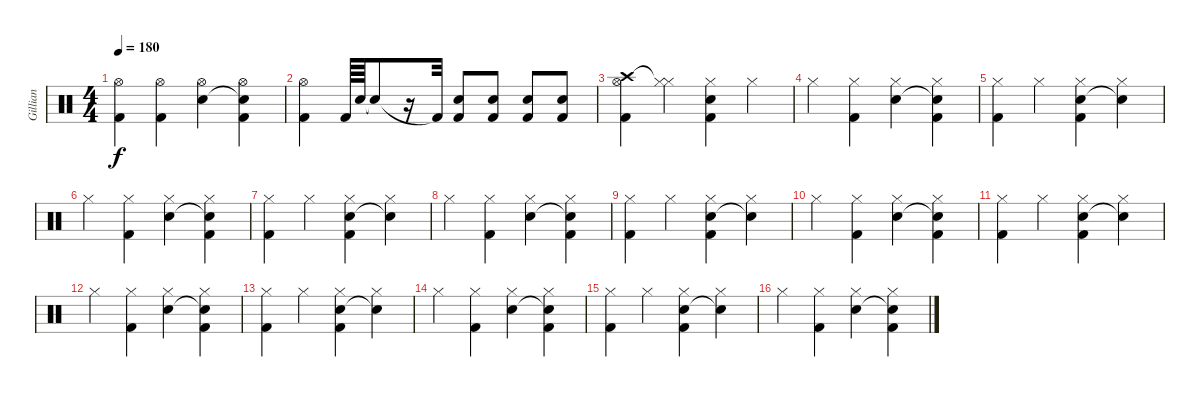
\track ("Gillian" "Gillian") {instrument percussion}
\staff {score}
\articulation defaults
\ts (4 4)
\tempo 180
\clef neutral
\ks c
("Hi-Hat (open)" "Kick (hit) 2").4{dy f} ("Hi-Hat (open)" "Kick (hit) 2").4 ("Hi-Hat (open)" "Electric Snare (hit)").4 ("Hi-Hat (open)" "Snare (hit)"{t} "Kick (hit) 2").4 |
("Hi-Hat (open)" "Kick (hit) 2").4 "Kick (hit) 2".64 "Electric Snare (hit)".64 "Snare (hit)"{t}.8 r.16 "Kick (hit) 2"{t}.32 ("Electric Snare (hit)" "Kick (hit) 2").8 ("Electric Snare (hit)" "Kick (hit) 2").8 ("Electric Snare (hit)" "Kick (hit) 2").8 ("Electric Snare (hit)" "Kick (hit) 2").8 |
("Crash high (hit)" "Hi-Hat (open)" "Kick (hit) 2").4 ("Hi-Hat (closed)"{t} "Hi-Hat (closed)").4 ("Electric Snare (hit)" "Hi-Hat (closed)" "Kick (hit) 2").4 "Hi-Hat (closed)".4 |
"Hi-Hat (closed)".4 ("Hi-Hat (closed)" "Kick (hit) 2").4 ("Electric Snare (hit)" "Hi-Hat (closed)").4 ("Snare (hit)"{t} "Hi-Hat (closed)" "Kick (hit) 2").4 |
("Hi-Hat (closed)" "Kick (hit) 2").4 "Hi-Hat (closed)".4 ("Electric Snare (hit)" "Hi-Hat (closed)" "Kick (hit) 2").4 ("Snare (hit)"{t} "Hi-Hat (closed)").4 |
"Hi-Hat (closed)".4 ("Hi-Hat (closed)" "Kick (hit) 2").4 ("Electric Snare (hit)" "Hi-Hat (closed)").4 ("Snare (hit)"{t} "Hi-Hat (closed)" "Kick (hit) 2").4 |
("Hi-Hat (closed)" "Kick (hit) 2").4 "Hi-Hat (closed)".4 ("Electric Snare (hit)" "Hi-Hat (closed)" "Kick (hit) 2").4 ("Snare (hit)"{t} "Hi-Hat (closed)").4 |
"Hi-Hat (closed)".4 ("Hi-Hat (closed)" "Kick (hit) 2").4 ("Electric Snare (hit)" "Hi-Hat (closed)").4 ("Snare (hit)"{t} "Hi-Hat (closed)" "Kick (hit) 2").4 |
("Hi-Hat (closed)" "Kick (hit) 2").4 "Hi-Hat (closed)".4 ("Electric Snare (hit)" "Hi-Hat (closed)" "Kick (hit) 2").4 ("Snare (hit)"{t} "Hi-Hat (closed)").4 |
"Hi-Hat (closed)".4 ("Hi-Hat (closed)" "Kick (hit) 2").4 ("Electric Snare (hit)" "Hi-Hat (closed)").4 ("Snare (hit)"{t} "Hi-Hat (closed)" "Kick (hit) 2").4 |
("Hi-Hat (closed)" "Kick (hit) 2").4 "Hi-Hat (closed)".4 ("Electric Snare (hit)" "Hi-Hat (closed)" "Kick (hit) 2").4 ("Snare (hit)"{t} "Hi-Hat (closed)").4 |
"Hi-Hat (closed)".4 ("Hi-Hat (closed)" "Kick (hit) 2").4 ("Electric Snare (hit)" "Hi-Hat (closed)").4 ("Snare (hit)"{t} "Hi-Hat (closed)" "Kick (hit) 2").4 |
("Hi-Hat (closed)" "Kick (hit) 2").4 "Hi-Hat (closed)".4 ("Electric Snare (hit)" "Hi-Hat (closed)" "Kick (hit) 2").4 ("Snare (hit)"{t} "Hi-Hat (closed)").4 |
"Hi-Hat (closed)".4 ("Hi-Hat (closed)" "Kick (hit) 2").4 ("Electric Snare (hit)" "Hi-Hat (closed)").4 ("Snare (hit)"{t} "Hi-Hat (closed)" "Kick (hit) 2").4 |
("Hi-Hat (closed)" "Kick (hit) 2").4 "Hi-Hat (closed)".4 ("Electric Snare (hit)" "Hi-Hat (closed)" "Kick (hit) 2").4 ("Snare (hit)"{t} "Hi-Hat (closed)").4 |
"Hi-Hat (closed)".4 ("Hi-Hat (closed)" "Kick (hit) 2").4 ("Electric Snare (hit)" "Hi-Hat (closed)").4 ("Snare (hit)"{t} "Hi-Hat (closed)" "Kick (hit) 2").4
